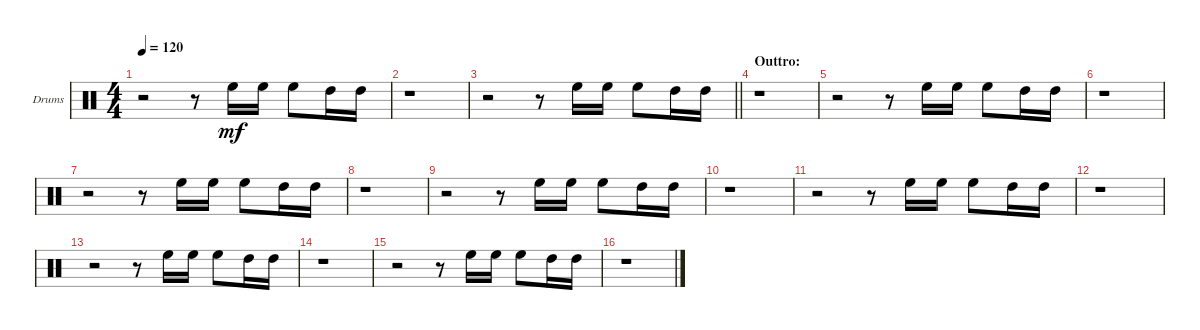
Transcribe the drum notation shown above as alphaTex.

\bracketExtendMode groupsimilarinstruments
\firstSystemTrackNameOrientation horizontal
\otherSystemsTrackNameOrientation horizontal
\track ("Drumkit" "Drums") {instrument percussion}
\staff {score}
\articulation defaults
\ts (4 4)
\tempo 120
\clef neutral
\ks c
r.2{dy mf} r.8 "High Floor Tom (hit)".16 "High Floor Tom (hit)".16 "High Floor Tom (hit)".8 "High Tom (hit)".16 "High Tom (hit)".16 |
r.1 |
\barLineRight lightlight
r.2 r.8 "High Floor Tom (hit)".16 "High Floor Tom (hit)".16 "High Floor Tom (hit)".8 "High Tom (hit)".16 "High Tom (hit)".16 |
\section ("" "Outtro:")
r.1 |
r.2 r.8 "High Floor Tom (hit)".16 "High Floor Tom (hit)".16 "High Floor Tom (hit)".8 "High Tom (hit)".16 "High Tom (hit)".16 |
r.1 |
r.2 r.8 "High Floor Tom (hit)".16 "High Floor Tom (hit)".16 "High Floor Tom (hit)".8 "High Tom (hit)".16 "High Tom (hit)".16 |
r.1 |
r.2 r.8 "High Floor Tom (hit)".16 "High Floor Tom (hit)".16 "High Floor Tom (hit)".8 "High Tom (hit)".16 "High Tom (hit)".16 |
r.1 |
r.2 r.8 "High Floor Tom (hit)".16 "High Floor Tom (hit)".16 "High Floor Tom (hit)".8 "High Tom (hit)".16 "High Tom (hit)".16 |
r.1 |
r.2 r.8 "High Floor Tom (hit)".16 "High Floor Tom (hit)".16 "High Floor Tom (hit)".8 "High Tom (hit)".16 "High Tom (hit)".16 |
r.1 |
r.2 r.8 "High Floor Tom (hit)".16 "High Floor Tom (hit)".16 "High Floor Tom (hit)".8 "High Tom (hit)".16 "High Tom (hit)".16 |
r.1
